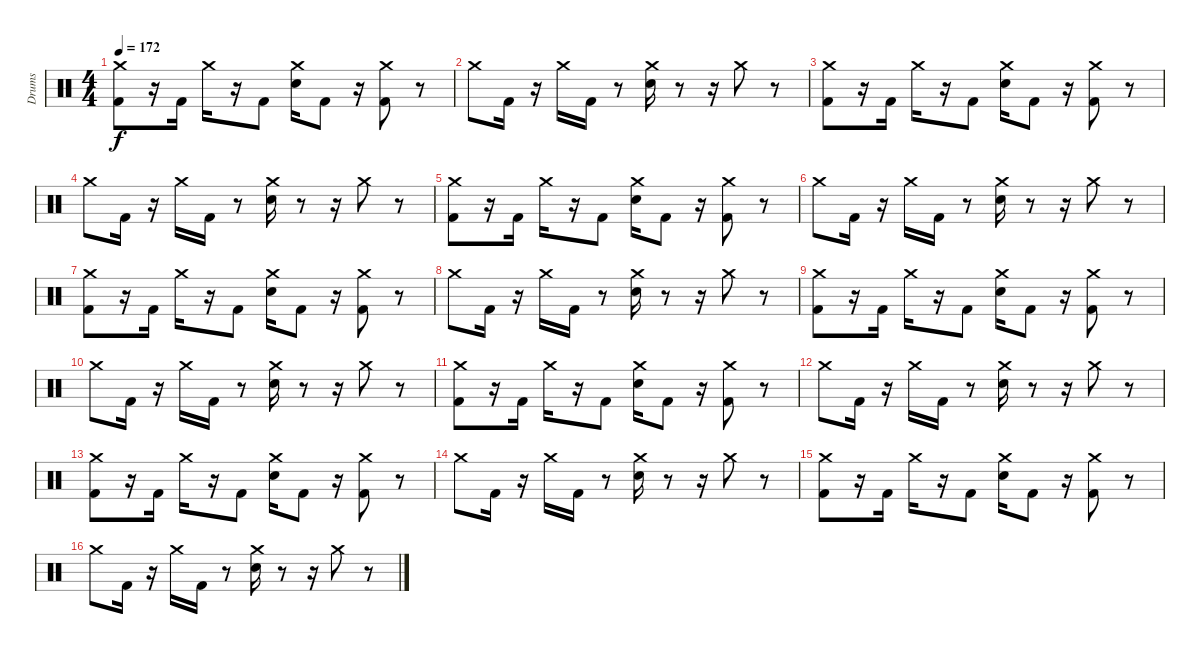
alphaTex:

\track ("Drums" "Drums") {instrument percussion}
\staff {score}
\articulation defaults
\ts (4 4)
\tempo 172
\clef neutral
\ks c
("Crash medium (hit)" "Kick (hit) 2").8{dy f} r.16 "Kick (hit) 2".16 "Crash medium (hit)".16 r.16 "Kick (hit) 2".8 ("Crash medium (hit)" "Electric Snare (hit)").16 "Kick (hit) 2".8 r.16 ("Crash medium (hit)" "Kick (hit) 2").8 r.8 |
"Crash medium (hit)".8 "Kick (hit) 2".16 r.16 "Crash medium (hit)".16 "Kick (hit) 2".16 r.8 ("Crash medium (hit)" "Electric Snare (hit)").16 r.8 r.16 "Crash medium (hit)".8 r.8 |
("Crash medium (hit)" "Kick (hit) 2").8 r.16 "Kick (hit) 2".16 "Crash medium (hit)".16 r.16 "Kick (hit) 2".8 ("Crash medium (hit)" "Electric Snare (hit)").16 "Kick (hit) 2".8 r.16 ("Crash medium (hit)" "Kick (hit) 2").8 r.8 |
"Crash medium (hit)".8 "Kick (hit) 2".16 r.16 "Crash medium (hit)".16 "Kick (hit) 2".16 r.8 ("Crash medium (hit)" "Electric Snare (hit)").16 r.8 r.16 "Crash medium (hit)".8 r.8 |
("Crash medium (hit)" "Kick (hit) 2").8 r.16 "Kick (hit) 2".16 "Crash medium (hit)".16 r.16 "Kick (hit) 2".8 ("Crash medium (hit)" "Electric Snare (hit)").16 "Kick (hit) 2".8 r.16 ("Crash medium (hit)" "Kick (hit) 2").8 r.8 |
"Crash medium (hit)".8 "Kick (hit) 2".16 r.16 "Crash medium (hit)".16 "Kick (hit) 2".16 r.8 ("Crash medium (hit)" "Electric Snare (hit)").16 r.8 r.16 "Crash medium (hit)".8 r.8 |
("Crash medium (hit)" "Kick (hit) 2").8 r.16 "Kick (hit) 2".16 "Crash medium (hit)".16 r.16 "Kick (hit) 2".8 ("Crash medium (hit)" "Electric Snare (hit)").16 "Kick (hit) 2".8 r.16 ("Crash medium (hit)" "Kick (hit) 2").8 r.8 |
"Crash medium (hit)".8 "Kick (hit) 2".16 r.16 "Crash medium (hit)".16 "Kick (hit) 2".16 r.8 ("Crash medium (hit)" "Electric Snare (hit)").16 r.8 r.16 "Crash medium (hit)".8 r.8 |
("Crash medium (hit)" "Kick (hit) 2").8 r.16 "Kick (hit) 2".16 "Crash medium (hit)".16 r.16 "Kick (hit) 2".8 ("Crash medium (hit)" "Electric Snare (hit)").16 "Kick (hit) 2".8 r.16 ("Crash medium (hit)" "Kick (hit) 2").8 r.8 |
"Crash medium (hit)".8 "Kick (hit) 2".16 r.16 "Crash medium (hit)".16 "Kick (hit) 2".16 r.8 ("Crash medium (hit)" "Electric Snare (hit)").16 r.8 r.16 "Crash medium (hit)".8 r.8 |
("Crash medium (hit)" "Kick (hit) 2").8 r.16 "Kick (hit) 2".16 "Crash medium (hit)".16 r.16 "Kick (hit) 2".8 ("Crash medium (hit)" "Electric Snare (hit)").16 "Kick (hit) 2".8 r.16 ("Crash medium (hit)" "Kick (hit) 2").8 r.8 |
"Crash medium (hit)".8 "Kick (hit) 2".16 r.16 "Crash medium (hit)".16 "Kick (hit) 2".16 r.8 ("Crash medium (hit)" "Electric Snare (hit)").16 r.8 r.16 "Crash medium (hit)".8 r.8 |
("Crash medium (hit)" "Kick (hit) 2").8 r.16 "Kick (hit) 2".16 "Crash medium (hit)".16 r.16 "Kick (hit) 2".8 ("Crash medium (hit)" "Electric Snare (hit)").16 "Kick (hit) 2".8 r.16 ("Crash medium (hit)" "Kick (hit) 2").8 r.8 |
"Crash medium (hit)".8 "Kick (hit) 2".16 r.16 "Crash medium (hit)".16 "Kick (hit) 2".16 r.8 ("Crash medium (hit)" "Electric Snare (hit)").16 r.8 r.16 "Crash medium (hit)".8 r.8 |
("Crash medium (hit)" "Kick (hit) 2").8 r.16 "Kick (hit) 2".16 "Crash medium (hit)".16 r.16 "Kick (hit) 2".8 ("Crash medium (hit)" "Electric Snare (hit)").16 "Kick (hit) 2".8 r.16 ("Crash medium (hit)" "Kick (hit) 2").8 r.8 |
"Crash medium (hit)".8 "Kick (hit) 2".16 r.16 "Crash medium (hit)".16 "Kick (hit) 2".16 r.8 ("Crash medium (hit)" "Electric Snare (hit)").16 r.8 r.16 "Crash medium (hit)".8 r.8
